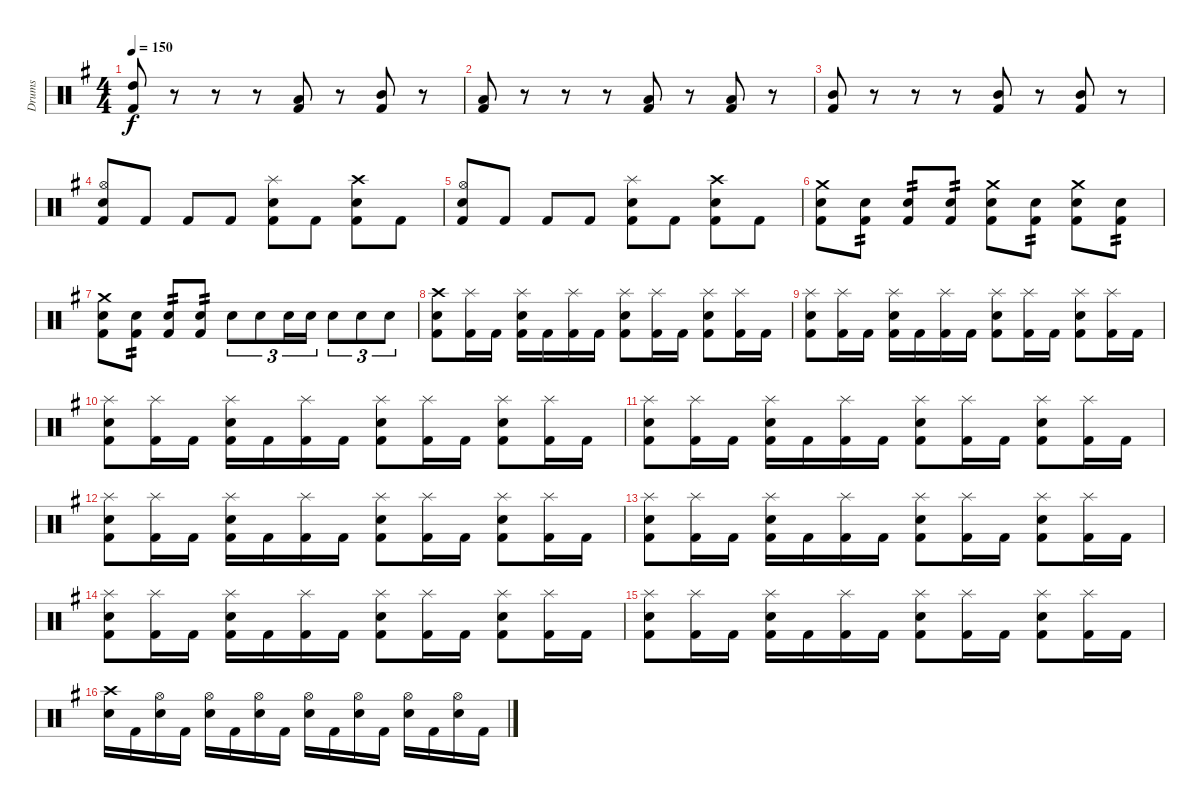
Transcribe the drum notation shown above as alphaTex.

\track ("Drums" "Drums") {instrument percussion}
\staff {score}
\articulation defaults
\ts (4 4)
\tempo 150
\clef neutral
\ks g
("High Tom (hit)" "Kick (hit) 2").8{dy f} r.8 r.8 r.8 ("Low Tom (hit)" "Kick (hit) 2").8 r.8 ("Mid Tom (hit)" "Kick (hit) 2").8 r.8 |
("Low Tom (hit)" "Kick (hit) 2").8 r.8 r.8 r.8 ("Low Tom (hit)" "Kick (hit) 2").8 r.8 ("Low Tom (hit)" "Kick (hit) 2").8 r.8 |
("Mid Tom (hit)" "Kick (hit) 2").8 r.8 r.8 r.8 ("Mid Tom (hit)" "Kick (hit) 2").8 r.8 ("Mid Tom (hit)" "Kick (hit) 2").8 r.8 |
("Hi-Hat (open)" "Snare (hit) 2" "Kick (hit) 2").8 "Kick (hit) 2".8 "Kick (hit) 2".8 "Kick (hit) 2".8 ("Splash (hit)" "Snare (hit) 2" "Kick (hit) 2").8 "Kick (hit) 2".8 ("Crash high (hit)" "Snare (hit) 2" "Kick (hit) 2").8 "Kick (hit) 2".8 |
("Hi-Hat (open)" "Snare (hit) 2" "Kick (hit) 2").8 "Kick (hit) 2".8 "Kick (hit) 2".8 "Kick (hit) 2".8 ("Splash (hit)" "Snare (hit) 2" "Kick (hit) 2").8 "Kick (hit) 2".8 ("Crash high (hit)" "Snare (hit) 2" "Kick (hit) 2").8 "Kick (hit) 2".8 |
("Crash medium (hit)" "Snare (hit) 2" "Kick (hit) 2").8 ("Snare (hit) 2" "Kick (hit) 2").8{tp 2} ("Snare (hit) 2" "Kick (hit) 2").8{tp 2} ("Snare (hit) 2" "Kick (hit) 2").8{tp 2} ("Crash medium (hit)" "Snare (hit) 2" "Kick (hit) 2").8 ("Snare (hit) 2" "Kick (hit) 2").8{tp 2} ("Crash medium (hit)" "Snare (hit) 2" "Kick (hit) 2").8 ("Snare (hit) 2" "Kick (hit) 2").8{tp 2} |
("Crash medium (hit)" "Snare (hit) 2" "Kick (hit) 2").8 ("Snare (hit) 2" "Kick (hit) 2").8{tp 2} ("Snare (hit) 2" "Kick (hit) 2").8{tp 2} ("Snare (hit) 2" "Kick (hit) 2").8{tp 2} "Snare (hit) 2".8{tu (3 2)} "Snare (hit) 2".8{tu (3 2)} "Snare (hit) 2".16{tu (3 2)} "Snare (hit) 2".16{tu (3 2)} "Snare (hit) 2".8{tu (3 2)} "Snare (hit) 2".8{tu (3 2)} "Snare (hit) 2".8{tu (3 2)} |
("Crash high (hit)" "Snare (hit) 2" "Kick (hit) 2").8 ("Splash (hit)" "Kick (hit) 2").16 "Kick (hit) 2".16 ("Splash (hit)" "Snare (hit) 2" "Kick (hit) 2").16 "Kick (hit) 2".16 ("Splash (hit)" "Kick (hit) 2").16 "Kick (hit) 2".16 ("Splash (hit)" "Snare (hit) 2" "Kick (hit) 2").8 ("Splash (hit)" "Kick (hit) 2").16 "Kick (hit) 2".16 ("Splash (hit)" "Snare (hit) 2" "Kick (hit) 2").8 ("Splash (hit)" "Kick (hit) 2").16 "Kick (hit) 2".16 |
("Splash (hit)" "Snare (hit) 2" "Kick (hit) 2").8 ("Splash (hit)" "Kick (hit) 2").16 "Kick (hit) 2".16 ("Splash (hit)" "Snare (hit) 2" "Kick (hit) 2").16 "Kick (hit) 2".16 ("Splash (hit)" "Kick (hit) 2").16 "Kick (hit) 2".16 ("Splash (hit)" "Snare (hit) 2" "Kick (hit) 2").8 ("Splash (hit)" "Kick (hit) 2").16 "Kick (hit) 2".16 ("Splash (hit)" "Snare (hit) 2" "Kick (hit) 2").8 ("Splash (hit)" "Kick (hit) 2").16 "Kick (hit) 2".16 |
("Splash (hit)" "Snare (hit) 2" "Kick (hit) 2").8 ("Splash (hit)" "Kick (hit) 2").16 "Kick (hit) 2".16 ("Splash (hit)" "Snare (hit) 2" "Kick (hit) 2").16 "Kick (hit) 2".16 ("Splash (hit)" "Kick (hit) 2").16 "Kick (hit) 2".16 ("Splash (hit)" "Snare (hit) 2" "Kick (hit) 2").8 ("Splash (hit)" "Kick (hit) 2").16 "Kick (hit) 2".16 ("Splash (hit)" "Snare (hit) 2" "Kick (hit) 2").8 ("Splash (hit)" "Kick (hit) 2").16 "Kick (hit) 2".16 |
("Splash (hit)" "Snare (hit) 2" "Kick (hit) 2").8 ("Splash (hit)" "Kick (hit) 2").16 "Kick (hit) 2".16 ("Splash (hit)" "Snare (hit) 2" "Kick (hit) 2").16 "Kick (hit) 2".16 ("Splash (hit)" "Kick (hit) 2").16 "Kick (hit) 2".16 ("Splash (hit)" "Snare (hit) 2" "Kick (hit) 2").8 ("Splash (hit)" "Kick (hit) 2").16 "Kick (hit) 2".16 ("Splash (hit)" "Snare (hit) 2" "Kick (hit) 2").8 ("Splash (hit)" "Kick (hit) 2").16 "Kick (hit) 2".16 |
("Splash (hit)" "Snare (hit) 2" "Kick (hit) 2").8 ("Splash (hit)" "Kick (hit) 2").16 "Kick (hit) 2".16 ("Splash (hit)" "Snare (hit) 2" "Kick (hit) 2").16 "Kick (hit) 2".16 ("Splash (hit)" "Kick (hit) 2").16 "Kick (hit) 2".16 ("Splash (hit)" "Snare (hit) 2" "Kick (hit) 2").8 ("Splash (hit)" "Kick (hit) 2").16 "Kick (hit) 2".16 ("Splash (hit)" "Snare (hit) 2" "Kick (hit) 2").8 ("Splash (hit)" "Kick (hit) 2").16 "Kick (hit) 2".16 |
("Splash (hit)" "Snare (hit) 2" "Kick (hit) 2").8 ("Splash (hit)" "Kick (hit) 2").16 "Kick (hit) 2".16 ("Splash (hit)" "Snare (hit) 2" "Kick (hit) 2").16 "Kick (hit) 2".16 ("Splash (hit)" "Kick (hit) 2").16 "Kick (hit) 2".16 ("Splash (hit)" "Snare (hit) 2" "Kick (hit) 2").8 ("Splash (hit)" "Kick (hit) 2").16 "Kick (hit) 2".16 ("Splash (hit)" "Snare (hit) 2" "Kick (hit) 2").8 ("Splash (hit)" "Kick (hit) 2").16 "Kick (hit) 2".16 |
("Splash (hit)" "Snare (hit) 2" "Kick (hit) 2").8 ("Splash (hit)" "Kick (hit) 2").16 "Kick (hit) 2".16 ("Splash (hit)" "Snare (hit) 2" "Kick (hit) 2").16 "Kick (hit) 2".16 ("Splash (hit)" "Kick (hit) 2").16 "Kick (hit) 2".16 ("Splash (hit)" "Snare (hit) 2" "Kick (hit) 2").8 ("Splash (hit)" "Kick (hit) 2").16 "Kick (hit) 2".16 ("Splash (hit)" "Snare (hit) 2" "Kick (hit) 2").8 ("Splash (hit)" "Kick (hit) 2").16 "Kick (hit) 2".16 |
("Splash (hit)" "Snare (hit) 2" "Kick (hit) 2").8 ("Splash (hit)" "Kick (hit) 2").16 "Kick (hit) 2".16 ("Splash (hit)" "Snare (hit) 2" "Kick (hit) 2").16 "Kick (hit) 2".16 ("Splash (hit)" "Kick (hit) 2").16 "Kick (hit) 2".16 ("Splash (hit)" "Snare (hit) 2" "Kick (hit) 2").8 ("Splash (hit)" "Kick (hit) 2").16 "Kick (hit) 2".16 ("Splash (hit)" "Snare (hit) 2" "Kick (hit) 2").8 ("Splash (hit)" "Kick (hit) 2").16 "Kick (hit) 2".16 |
("Crash high (hit)" "Snare (hit) 2").16 "Kick (hit) 2".16 ("Hi-Hat (open)" "Snare (hit) 2").16 "Kick (hit) 2".16 ("Hi-Hat (open)" "Snare (hit) 2").16 "Kick (hit) 2".16 ("Hi-Hat (open)" "Snare (hit) 2").16 "Kick (hit) 2".16 ("Hi-Hat (open)" "Snare (hit) 2").16 "Kick (hit) 2".16 ("Hi-Hat (open)" "Snare (hit) 2").16 "Kick (hit) 2".16 ("Hi-Hat (open)" "Snare (hit) 2").16 "Kick (hit) 2".16 ("Hi-Hat (open)" "Snare (hit) 2").16 "Kick (hit) 2".16
